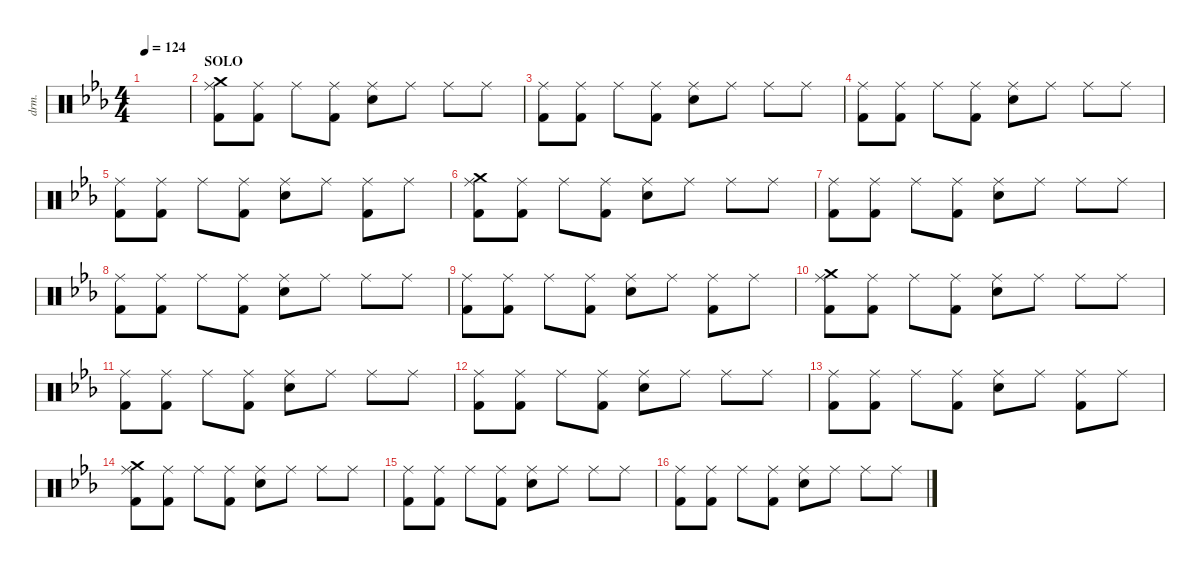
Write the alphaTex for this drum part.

\defaultSystemsLayout 4
\hideDynamics
\bracketExtendMode nobrackets
\otherSystemsTrackNameOrientation horizontal
\track ("Drumkit" "drm.") {instrument percussion}
\staff {score}
\articulation defaults
\ts (4 4)
\tempo 124
\clef neutral
\ks cminor
|
\section ("" "SOLO")
("Ride (middle)"{acc forcenatural} "Kick (hit) 2"{acc forcenatural} "Crash medium (hit)"{acc forcenatural}).8{beam Down} ("Ride (middle)"{acc forcenatural} "Kick (hit) 2"{acc forcenatural}).8{beam Down} "Ride (middle)"{acc forcenatural}.8{beam Down} ("Ride (middle)"{acc forcenatural} "Kick (hit) 2"{acc forcenatural}).8{beam Down} ("Ride (middle)"{acc forcenatural} "Snare (hit) 2"{acc forcenatural}).8{beam Down} "Ride (middle)"{acc forcenatural}.8{beam Down} "Ride (middle)"{acc forcenatural}.8{beam Down} "Ride (middle)"{acc forcenatural}.8{beam Down} |
("Ride (middle)"{acc forcenatural} "Kick (hit) 2"{acc forcenatural}).8{beam Down} ("Ride (middle)"{acc forcenatural} "Kick (hit) 2"{acc forcenatural}).8{beam Down} "Ride (middle)"{acc forcenatural}.8{beam Down} ("Ride (middle)"{acc forcenatural} "Kick (hit) 2"{acc forcenatural}).8{beam Down} ("Ride (middle)"{acc forcenatural} "Snare (hit) 2"{acc forcenatural}).8{beam Down} "Ride (middle)"{acc forcenatural}.8{beam Down} "Ride (middle)"{acc forcenatural}.8{beam Down} "Ride (middle)"{acc forcenatural}.8{beam Down} |
("Ride (middle)"{acc forcenatural} "Kick (hit) 2"{acc forcenatural}).8{beam Down} ("Ride (middle)"{acc forcenatural} "Kick (hit) 2"{acc forcenatural}).8{beam Down} "Ride (middle)"{acc forcenatural}.8{beam Down} ("Ride (middle)"{acc forcenatural} "Kick (hit) 2"{acc forcenatural}).8{beam Down} ("Ride (middle)"{acc forcenatural} "Snare (hit) 2"{acc forcenatural}).8{beam Down} "Ride (middle)"{acc forcenatural}.8{beam Down} "Ride (middle)"{acc forcenatural}.8{beam Down} "Ride (middle)"{acc forcenatural}.8{beam Down} |
("Ride (middle)"{acc forcenatural} "Kick (hit) 2"{acc forcenatural}).8{beam Down} ("Ride (middle)"{acc forcenatural} "Kick (hit) 2"{acc forcenatural}).8{beam Down} "Ride (middle)"{acc forcenatural}.8{beam Down} ("Ride (middle)"{acc forcenatural} "Kick (hit) 2"{acc forcenatural}).8{beam Down} ("Ride (middle)"{acc forcenatural} "Snare (hit) 2"{acc forcenatural}).8{beam Down} "Ride (middle)"{acc forcenatural}.8{beam Down} ("Ride (middle)"{acc forcenatural} "Kick (hit) 2"{acc forcenatural}).8{beam Down} "Ride (middle)"{acc forcenatural}.8{beam Down} |
("Ride (middle)"{acc forcenatural} "Kick (hit) 2"{acc forcenatural} "Crash medium (hit)"{acc forcenatural}).8{beam Down} ("Ride (middle)"{acc forcenatural} "Kick (hit) 2"{acc forcenatural}).8{beam Down} "Ride (middle)"{acc forcenatural}.8{beam Down} ("Ride (middle)"{acc forcenatural} "Kick (hit) 2"{acc forcenatural}).8{beam Down} ("Ride (middle)"{acc forcenatural} "Snare (hit) 2"{acc forcenatural}).8{beam Down} "Ride (middle)"{acc forcenatural}.8{beam Down} "Ride (middle)"{acc forcenatural}.8{beam Down} "Ride (middle)"{acc forcenatural}.8{beam Down} |
("Ride (middle)"{acc forcenatural} "Kick (hit) 2"{acc forcenatural}).8{beam Down} ("Ride (middle)"{acc forcenatural} "Kick (hit) 2"{acc forcenatural}).8{beam Down} "Ride (middle)"{acc forcenatural}.8{beam Down} ("Ride (middle)"{acc forcenatural} "Kick (hit) 2"{acc forcenatural}).8{beam Down} ("Ride (middle)"{acc forcenatural} "Snare (hit) 2"{acc forcenatural}).8{beam Down} "Ride (middle)"{acc forcenatural}.8{beam Down} "Ride (middle)"{acc forcenatural}.8{beam Down} "Ride (middle)"{acc forcenatural}.8{beam Down} |
("Ride (middle)"{acc forcenatural} "Kick (hit) 2"{acc forcenatural}).8{beam Down} ("Ride (middle)"{acc forcenatural} "Kick (hit) 2"{acc forcenatural}).8{beam Down} "Ride (middle)"{acc forcenatural}.8{beam Down} ("Ride (middle)"{acc forcenatural} "Kick (hit) 2"{acc forcenatural}).8{beam Down} ("Ride (middle)"{acc forcenatural} "Snare (hit) 2"{acc forcenatural}).8{beam Down} "Ride (middle)"{acc forcenatural}.8{beam Down} "Ride (middle)"{acc forcenatural}.8{beam Down} "Ride (middle)"{acc forcenatural}.8{beam Down} |
("Ride (middle)"{acc forcenatural} "Kick (hit) 2"{acc forcenatural}).8{beam Down} ("Ride (middle)"{acc forcenatural} "Kick (hit) 2"{acc forcenatural}).8{beam Down} "Ride (middle)"{acc forcenatural}.8{beam Down} ("Ride (middle)"{acc forcenatural} "Kick (hit) 2"{acc forcenatural}).8{beam Down} ("Ride (middle)"{acc forcenatural} "Snare (hit) 2"{acc forcenatural}).8{beam Down} "Ride (middle)"{acc forcenatural}.8{beam Down} ("Ride (middle)"{acc forcenatural} "Kick (hit) 2"{acc forcenatural}).8{beam Down} "Ride (middle)"{acc forcenatural}.8{beam Down} |
("Ride (middle)"{acc forcenatural} "Kick (hit) 2"{acc forcenatural} "Crash medium (hit)"{acc forcenatural}).8{beam Down} ("Ride (middle)"{acc forcenatural} "Kick (hit) 2"{acc forcenatural}).8{beam Down} "Ride (middle)"{acc forcenatural}.8{beam Down} ("Ride (middle)"{acc forcenatural} "Kick (hit) 2"{acc forcenatural}).8{beam Down} ("Ride (middle)"{acc forcenatural} "Snare (hit) 2"{acc forcenatural}).8{beam Down} "Ride (middle)"{acc forcenatural}.8{beam Down} "Ride (middle)"{acc forcenatural}.8{beam Down} "Ride (middle)"{acc forcenatural}.8{beam Down} |
("Ride (middle)"{acc forcenatural} "Kick (hit) 2"{acc forcenatural}).8{beam Down} ("Ride (middle)"{acc forcenatural} "Kick (hit) 2"{acc forcenatural}).8{beam Down} "Ride (middle)"{acc forcenatural}.8{beam Down} ("Ride (middle)"{acc forcenatural} "Kick (hit) 2"{acc forcenatural}).8{beam Down} ("Ride (middle)"{acc forcenatural} "Snare (hit) 2"{acc forcenatural}).8{beam Down} "Ride (middle)"{acc forcenatural}.8{beam Down} "Ride (middle)"{acc forcenatural}.8{beam Down} "Ride (middle)"{acc forcenatural}.8{beam Down} |
("Ride (middle)"{acc forcenatural} "Kick (hit) 2"{acc forcenatural}).8{beam Down} ("Ride (middle)"{acc forcenatural} "Kick (hit) 2"{acc forcenatural}).8{beam Down} "Ride (middle)"{acc forcenatural}.8{beam Down} ("Ride (middle)"{acc forcenatural} "Kick (hit) 2"{acc forcenatural}).8{beam Down} ("Ride (middle)"{acc forcenatural} "Snare (hit) 2"{acc forcenatural}).8{beam Down} "Ride (middle)"{acc forcenatural}.8{beam Down} "Ride (middle)"{acc forcenatural}.8{beam Down} "Ride (middle)"{acc forcenatural}.8{beam Down} |
("Ride (middle)"{acc forcenatural} "Kick (hit) 2"{acc forcenatural}).8{beam Down} ("Ride (middle)"{acc forcenatural} "Kick (hit) 2"{acc forcenatural}).8{beam Down} "Ride (middle)"{acc forcenatural}.8{beam Down} ("Ride (middle)"{acc forcenatural} "Kick (hit) 2"{acc forcenatural}).8{beam Down} ("Ride (middle)"{acc forcenatural} "Snare (hit) 2"{acc forcenatural}).8{beam Down} "Ride (middle)"{acc forcenatural}.8{beam Down} ("Ride (middle)"{acc forcenatural} "Kick (hit) 2"{acc forcenatural}).8{beam Down} "Ride (middle)"{acc forcenatural}.8{beam Down} |
("Ride (middle)"{acc forcenatural} "Kick (hit) 2"{acc forcenatural} "Crash medium (hit)"{acc forcenatural}).8{beam Down} ("Ride (middle)"{acc forcenatural} "Kick (hit) 2"{acc forcenatural}).8{beam Down} "Ride (middle)"{acc forcenatural}.8{beam Down} ("Ride (middle)"{acc forcenatural} "Kick (hit) 2"{acc forcenatural}).8{beam Down} ("Ride (middle)"{acc forcenatural} "Snare (hit) 2"{acc forcenatural}).8{beam Down} "Ride (middle)"{acc forcenatural}.8{beam Down} "Ride (middle)"{acc forcenatural}.8{beam Down} "Ride (middle)"{acc forcenatural}.8{beam Down} |
("Ride (middle)"{acc forcenatural} "Kick (hit) 2"{acc forcenatural}).8{beam Down} ("Ride (middle)"{acc forcenatural} "Kick (hit) 2"{acc forcenatural}).8{beam Down} "Ride (middle)"{acc forcenatural}.8{beam Down} ("Ride (middle)"{acc forcenatural} "Kick (hit) 2"{acc forcenatural}).8{beam Down} ("Ride (middle)"{acc forcenatural} "Snare (hit) 2"{acc forcenatural}).8{beam Down} "Ride (middle)"{acc forcenatural}.8{beam Down} "Ride (middle)"{acc forcenatural}.8{beam Down} "Ride (middle)"{acc forcenatural}.8{beam Down} |
("Ride (middle)"{acc forcenatural} "Kick (hit) 2"{acc forcenatural}).8{beam Down} ("Ride (middle)"{acc forcenatural} "Kick (hit) 2"{acc forcenatural}).8{beam Down} "Ride (middle)"{acc forcenatural}.8{beam Down} ("Ride (middle)"{acc forcenatural} "Kick (hit) 2"{acc forcenatural}).8{beam Down} ("Ride (middle)"{acc forcenatural} "Snare (hit) 2"{acc forcenatural}).8{beam Down} "Ride (middle)"{acc forcenatural}.8{beam Down} "Ride (middle)"{acc forcenatural}.8{beam Down} "Ride (middle)"{acc forcenatural}.8{beam Down}
